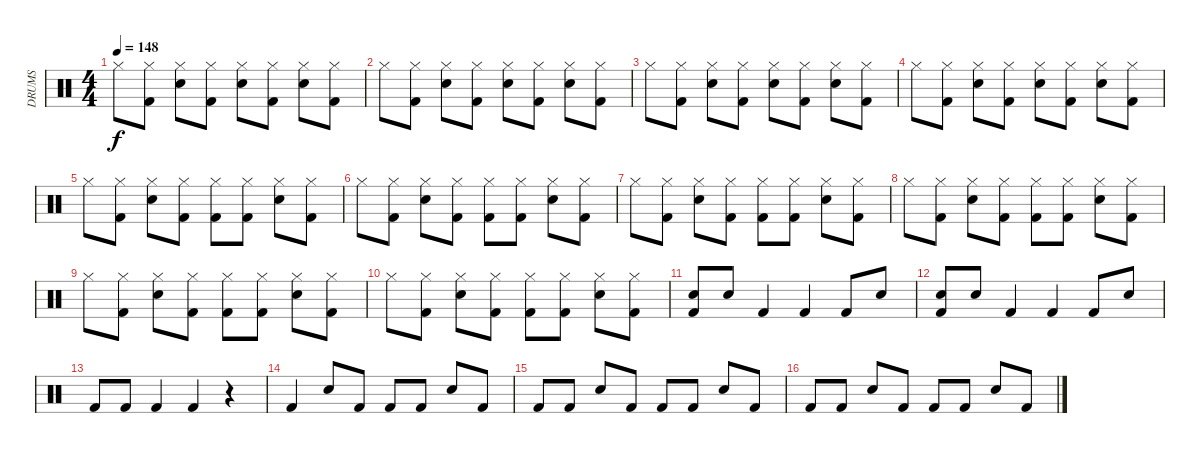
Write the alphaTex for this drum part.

\track ("DRUMS" "DRUMS") {instrument percussion}
\staff {score}
\articulation defaults
\ts (4 4)
\tempo 148
\clef neutral
\ks c "Hi-Hat (closed)".8{dy f}
("Hi-Hat (closed)" "Kick (hit) 2").8 ("Hi-Hat (closed)" "Snare (hit) 2").8 ("Hi-Hat (closed)" "Kick (hit) 2").8 ("Hi-Hat (closed)" "Snare (hit) 2").8 ("Hi-Hat (closed)" "Kick (hit) 2").8 ("Hi-Hat (closed)" "Snare (hit) 2").8 ("Hi-Hat (closed)" "Kick (hit) 2").8 |
"Hi-Hat (closed)".8 ("Hi-Hat (closed)" "Kick (hit) 2").8 ("Hi-Hat (closed)" "Snare (hit) 2").8 ("Hi-Hat (closed)" "Kick (hit) 2").8 ("Hi-Hat (closed)" "Snare (hit) 2").8 ("Hi-Hat (closed)" "Kick (hit) 2").8 ("Hi-Hat (closed)" "Snare (hit) 2").8 ("Hi-Hat (closed)" "Kick (hit) 2").8 |
"Hi-Hat (closed)".8 ("Hi-Hat (closed)" "Kick (hit) 2").8 ("Hi-Hat (closed)" "Snare (hit) 2").8 ("Hi-Hat (closed)" "Kick (hit) 2").8 ("Hi-Hat (closed)" "Snare (hit) 2").8 ("Hi-Hat (closed)" "Kick (hit) 2").8 ("Hi-Hat (closed)" "Snare (hit) 2").8 ("Hi-Hat (closed)" "Kick (hit) 2").8 |
"Hi-Hat (closed)".8 ("Hi-Hat (closed)" "Kick (hit) 2").8 ("Hi-Hat (closed)" "Snare (hit) 2").8 ("Hi-Hat (closed)" "Kick (hit) 2").8 ("Hi-Hat (closed)" "Snare (hit) 2").8 ("Hi-Hat (closed)" "Kick (hit) 2").8 ("Hi-Hat (closed)" "Snare (hit) 2").8 ("Hi-Hat (closed)" "Kick (hit) 2").8 |
"Hi-Hat (closed)".8 ("Hi-Hat (closed)" "Kick (hit) 2").8 ("Hi-Hat (closed)" "Snare (hit) 2").8 ("Hi-Hat (closed)" "Kick (hit) 2").8 ("Hi-Hat (closed)" "Kick (hit) 2").8 ("Hi-Hat (closed)" "Kick (hit) 2").8 ("Hi-Hat (closed)" "Snare (hit) 2").8 ("Hi-Hat (closed)" "Kick (hit) 2").8 |
"Hi-Hat (closed)".8 ("Hi-Hat (closed)" "Kick (hit) 2").8 ("Hi-Hat (closed)" "Snare (hit) 2").8 ("Hi-Hat (closed)" "Kick (hit) 2").8 ("Hi-Hat (closed)" "Kick (hit) 2").8 ("Hi-Hat (closed)" "Kick (hit) 2").8 ("Hi-Hat (closed)" "Snare (hit) 2").8 ("Hi-Hat (closed)" "Kick (hit) 2").8 |
"Hi-Hat (closed)".8 ("Hi-Hat (closed)" "Kick (hit) 2").8 ("Hi-Hat (closed)" "Snare (hit) 2").8 ("Hi-Hat (closed)" "Kick (hit) 2").8 ("Hi-Hat (closed)" "Kick (hit) 2").8 ("Hi-Hat (closed)" "Kick (hit) 2").8 ("Hi-Hat (closed)" "Snare (hit) 2").8 ("Hi-Hat (closed)" "Kick (hit) 2").8 |
"Hi-Hat (closed)".8 ("Hi-Hat (closed)" "Kick (hit) 2").8 ("Hi-Hat (closed)" "Snare (hit) 2").8 ("Hi-Hat (closed)" "Kick (hit) 2").8 ("Hi-Hat (closed)" "Kick (hit) 2").8 ("Hi-Hat (closed)" "Kick (hit) 2").8 ("Hi-Hat (closed)" "Snare (hit) 2").8 ("Hi-Hat (closed)" "Kick (hit) 2").8 |
"Hi-Hat (closed)".8 ("Hi-Hat (closed)" "Kick (hit) 2").8 ("Hi-Hat (closed)" "Snare (hit) 2").8 ("Hi-Hat (closed)" "Kick (hit) 2").8 ("Hi-Hat (closed)" "Kick (hit) 2").8 ("Hi-Hat (closed)" "Kick (hit) 2").8 ("Hi-Hat (closed)" "Snare (hit) 2").8 ("Hi-Hat (closed)" "Kick (hit) 2").8 |
"Hi-Hat (closed)".8 ("Hi-Hat (closed)" "Kick (hit) 2").8 ("Hi-Hat (closed)" "Snare (hit) 2").8 ("Hi-Hat (closed)" "Kick (hit) 2").8 ("Hi-Hat (closed)" "Kick (hit) 2").8 ("Hi-Hat (closed)" "Kick (hit) 2").8 ("Hi-Hat (closed)" "Snare (hit) 2").8 ("Hi-Hat (closed)" "Kick (hit) 2").8 |
("Snare (hit) 2" "Kick (hit) 2").8 "Snare (hit) 2".8 "Kick (hit) 2".4 "Kick (hit) 2".4 "Kick (hit) 2".8 "Snare (hit) 2".8 |
("Snare (hit) 2" "Kick (hit) 2").8 "Snare (hit) 2".8 "Kick (hit) 2".4 "Kick (hit) 2".4 "Kick (hit) 2".8 "Snare (hit) 2".8 |
"Kick (hit) 2".8 "Kick (hit) 2".8 "Kick (hit) 2".4 "Kick (hit) 2".4 r.4 |
"Kick (hit) 2".4 "Snare (hit) 2".8 "Kick (hit) 2".8 "Kick (hit) 2".8 "Kick (hit) 2".8 "Snare (hit) 2".8 "Kick (hit) 2".8 |
"Kick (hit) 2".8 "Kick (hit) 2".8 "Snare (hit) 2".8 "Kick (hit) 2".8 "Kick (hit) 2".8 "Kick (hit) 2".8 "Snare (hit) 2".8 "Kick (hit) 2".8 |
"Kick (hit) 2".8 "Kick (hit) 2".8 "Snare (hit) 2".8 "Kick (hit) 2".8 "Kick (hit) 2".8 "Kick (hit) 2".8 "Snare (hit) 2".8 "Kick (hit) 2".8
